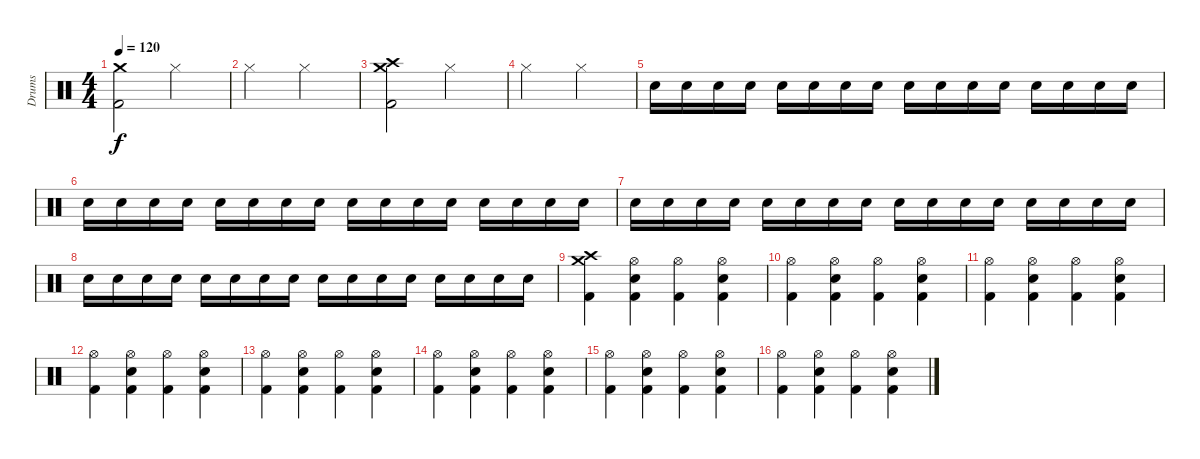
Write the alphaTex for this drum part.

\track ("Drums" "Drums") {instrument percussion}
\staff {score}
\articulation defaults
\ts (4 4)
\tempo 120
\clef neutral
\ks c
("Crash medium (hit)" "Kick (hit) 2").2{dy f} "Hi-Hat (closed)".2 |
"Hi-Hat (closed)".2 "Hi-Hat (closed)".2 |
("Crash medium (hit)" "Crash high (hit)" "Kick (hit) 2").2 "Hi-Hat (closed)".2 |
"Hi-Hat (closed)".2 "Hi-Hat (closed)".2 |
"Electric Snare (hit)".16 "Electric Snare (hit)".16 "Electric Snare (hit)".16 "Electric Snare (hit)".16 "Electric Snare (hit)".16 "Electric Snare (hit)".16 "Electric Snare (hit)".16 "Electric Snare (hit)".16 "Electric Snare (hit)".16 "Electric Snare (hit)".16 "Electric Snare (hit)".16 "Electric Snare (hit)".16 "Electric Snare (hit)".16 "Electric Snare (hit)".16 "Electric Snare (hit)".16 "Electric Snare (hit)".16 |
"Electric Snare (hit)".16 "Electric Snare (hit)".16 "Electric Snare (hit)".16 "Electric Snare (hit)".16 "Electric Snare (hit)".16 "Electric Snare (hit)".16 "Electric Snare (hit)".16 "Electric Snare (hit)".16 "Electric Snare (hit)".16 "Electric Snare (hit)".16 "Electric Snare (hit)".16 "Electric Snare (hit)".16 "Electric Snare (hit)".16 "Electric Snare (hit)".16 "Electric Snare (hit)".16 "Electric Snare (hit)".16 |
"Electric Snare (hit)".16 "Electric Snare (hit)".16 "Electric Snare (hit)".16 "Electric Snare (hit)".16 "Electric Snare (hit)".16 "Electric Snare (hit)".16 "Electric Snare (hit)".16 "Electric Snare (hit)".16 "Electric Snare (hit)".16 "Electric Snare (hit)".16 "Electric Snare (hit)".16 "Electric Snare (hit)".16 "Electric Snare (hit)".16 "Electric Snare (hit)".16 "Electric Snare (hit)".16 "Electric Snare (hit)".16 |
"Electric Snare (hit)".16 "Electric Snare (hit)".16 "Electric Snare (hit)".16 "Electric Snare (hit)".16 "Electric Snare (hit)".16 "Electric Snare (hit)".16 "Electric Snare (hit)".16 "Electric Snare (hit)".16 "Electric Snare (hit)".16 "Electric Snare (hit)".16 "Electric Snare (hit)".16 "Electric Snare (hit)".16 "Electric Snare (hit)".16 "Electric Snare (hit)".16 "Electric Snare (hit)".16 "Electric Snare (hit)".16 |
("Crash medium (hit)" "Crash high (hit)" "Kick (hit) 2").4 ("Hi-Hat (open)" "Electric Snare (hit)" "Kick (hit) 2").4 ("Hi-Hat (open)" "Kick (hit) 2").4 ("Hi-Hat (open)" "Electric Snare (hit)" "Kick (hit) 2").4 |
("Hi-Hat (open)" "Kick (hit) 2").4 ("Hi-Hat (open)" "Electric Snare (hit)" "Kick (hit) 2").4 ("Hi-Hat (open)" "Kick (hit) 2").4 ("Hi-Hat (open)" "Electric Snare (hit)" "Kick (hit) 2").4 |
("Hi-Hat (open)" "Kick (hit) 2").4 ("Hi-Hat (open)" "Electric Snare (hit)" "Kick (hit) 2").4 ("Hi-Hat (open)" "Kick (hit) 2").4 ("Hi-Hat (open)" "Electric Snare (hit)" "Kick (hit) 2").4 |
("Hi-Hat (open)" "Kick (hit) 2").4 ("Hi-Hat (open)" "Electric Snare (hit)" "Kick (hit) 2").4 ("Hi-Hat (open)" "Kick (hit) 2").4 ("Hi-Hat (open)" "Electric Snare (hit)" "Kick (hit) 2").4 |
("Hi-Hat (open)" "Kick (hit) 2").4 ("Hi-Hat (open)" "Electric Snare (hit)" "Kick (hit) 2").4 ("Hi-Hat (open)" "Kick (hit) 2").4 ("Hi-Hat (open)" "Electric Snare (hit)" "Kick (hit) 2").4 |
("Hi-Hat (open)" "Kick (hit) 2").4 ("Hi-Hat (open)" "Electric Snare (hit)" "Kick (hit) 2").4 ("Hi-Hat (open)" "Kick (hit) 2").4 ("Hi-Hat (open)" "Electric Snare (hit)" "Kick (hit) 2").4 |
("Hi-Hat (open)" "Kick (hit) 2").4 ("Hi-Hat (open)" "Electric Snare (hit)" "Kick (hit) 2").4 ("Hi-Hat (open)" "Kick (hit) 2").4 ("Hi-Hat (open)" "Electric Snare (hit)" "Kick (hit) 2").4 |
("Hi-Hat (open)" "Kick (hit) 2").4 ("Hi-Hat (open)" "Electric Snare (hit)" "Kick (hit) 2").4 ("Hi-Hat (open)" "Kick (hit) 2").4 ("Hi-Hat (open)" "Electric Snare (hit)" "Kick (hit) 2").4
